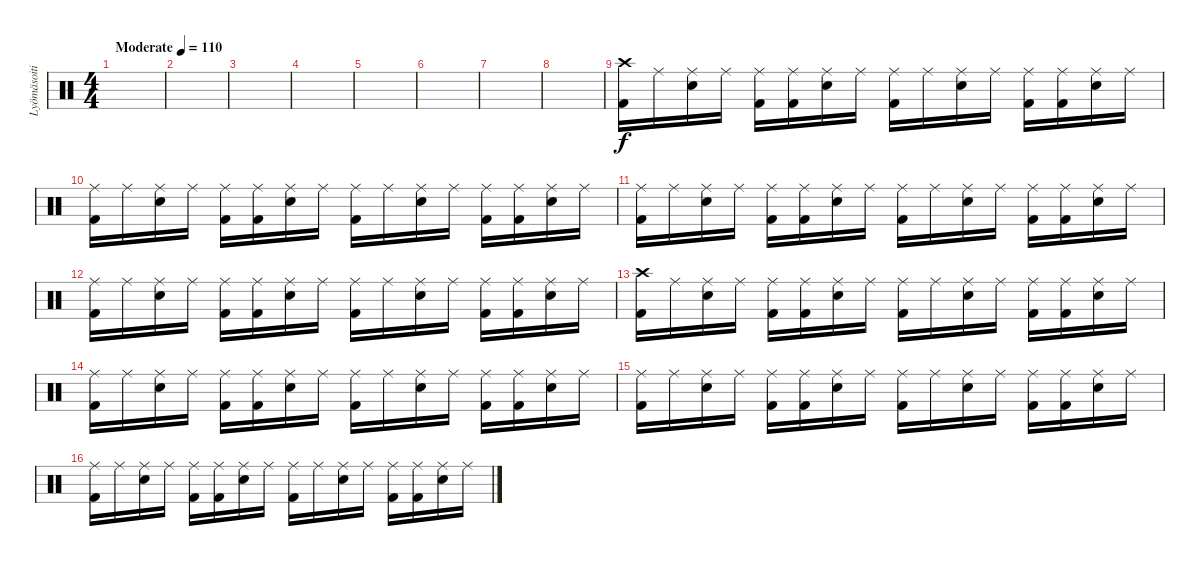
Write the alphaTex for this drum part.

\track ("Lyömäsoitin" "Lyömäsoiti") {instrument percussion}
\staff {score}
\articulation defaults
\ts (4 4)
\tempo (110 "Moderate")
\clef neutral
\ks c
|
|
|
|
|
|
|
|
("Crash high (hit)" "Kick (hit) 2").16 "Ride (middle)".16 ("Ride (middle)" "Snare (hit) 2").16 "Ride (middle)".16 ("Ride (middle)" "Kick (hit) 2").16 ("Ride (middle)" "Kick (hit) 2").16 ("Ride (middle)" "Snare (hit) 2").16 "Ride (middle)".16 ("Ride (middle)" "Kick (hit) 2").16 "Ride (middle)".16 ("Ride (middle)" "Snare (hit) 2").16 "Ride (middle)".16 ("Ride (middle)" "Kick (hit) 2").16 ("Ride (middle)" "Kick (hit) 2").16 ("Ride (middle)" "Snare (hit) 2").16 "Ride (middle)".16 |
("Ride (middle)" "Kick (hit) 2").16 "Ride (middle)".16 ("Ride (middle)" "Snare (hit) 2").16 "Ride (middle)".16 ("Ride (middle)" "Kick (hit) 2").16 ("Ride (middle)" "Kick (hit) 2").16 ("Ride (middle)" "Snare (hit) 2").16 "Ride (middle)".16 ("Ride (middle)" "Kick (hit) 2").16 "Ride (middle)".16 ("Ride (middle)" "Snare (hit) 2").16 "Ride (middle)".16 ("Ride (middle)" "Kick (hit) 2").16 ("Ride (middle)" "Kick (hit) 2").16 ("Ride (middle)" "Snare (hit) 2").16 "Ride (middle)".16 |
("Ride (middle)" "Kick (hit) 2").16 "Ride (middle)".16 ("Ride (middle)" "Snare (hit) 2").16 "Ride (middle)".16 ("Ride (middle)" "Kick (hit) 2").16 ("Ride (middle)" "Kick (hit) 2").16 ("Ride (middle)" "Snare (hit) 2").16 "Ride (middle)".16 ("Ride (middle)" "Kick (hit) 2").16 "Ride (middle)".16 ("Ride (middle)" "Snare (hit) 2").16 "Ride (middle)".16 ("Ride (middle)" "Kick (hit) 2").16 ("Ride (middle)" "Kick (hit) 2").16 ("Ride (middle)" "Snare (hit) 2").16 "Ride (middle)".16 |
("Ride (middle)" "Kick (hit) 2").16 "Ride (middle)".16 ("Ride (middle)" "Snare (hit) 2").16 "Ride (middle)".16 ("Ride (middle)" "Kick (hit) 2").16 ("Ride (middle)" "Kick (hit) 2").16 ("Ride (middle)" "Snare (hit) 2").16 "Ride (middle)".16 ("Ride (middle)" "Kick (hit) 2").16 "Ride (middle)".16 ("Ride (middle)" "Snare (hit) 2").16 "Ride (middle)".16 ("Ride (middle)" "Kick (hit) 2").16 ("Ride (middle)" "Kick (hit) 2").16 ("Ride (middle)" "Snare (hit) 2").16 "Ride (middle)".16 |
("Crash high (hit)" "Kick (hit) 2").16 "Ride (middle)".16 ("Ride (middle)" "Snare (hit) 2").16 "Ride (middle)".16 ("Ride (middle)" "Kick (hit) 2").16 ("Ride (middle)" "Kick (hit) 2").16 ("Ride (middle)" "Snare (hit) 2").16 "Ride (middle)".16 ("Ride (middle)" "Kick (hit) 2").16 "Ride (middle)".16 ("Ride (middle)" "Snare (hit) 2").16 "Ride (middle)".16 ("Ride (middle)" "Kick (hit) 2").16 ("Ride (middle)" "Kick (hit) 2").16 ("Ride (middle)" "Snare (hit) 2").16 "Ride (middle)".16 |
("Ride (middle)" "Kick (hit) 2").16 "Ride (middle)".16 ("Ride (middle)" "Snare (hit) 2").16 "Ride (middle)".16 ("Ride (middle)" "Kick (hit) 2").16 ("Ride (middle)" "Kick (hit) 2").16 ("Ride (middle)" "Snare (hit) 2").16 "Ride (middle)".16 ("Ride (middle)" "Kick (hit) 2").16 "Ride (middle)".16 ("Ride (middle)" "Snare (hit) 2").16 "Ride (middle)".16 ("Ride (middle)" "Kick (hit) 2").16 ("Ride (middle)" "Kick (hit) 2").16 ("Ride (middle)" "Snare (hit) 2").16 "Ride (middle)".16 |
("Ride (middle)" "Kick (hit) 2").16 "Ride (middle)".16 ("Ride (middle)" "Snare (hit) 2").16 "Ride (middle)".16 ("Ride (middle)" "Kick (hit) 2").16 ("Ride (middle)" "Kick (hit) 2").16 ("Ride (middle)" "Snare (hit) 2").16 "Ride (middle)".16 ("Ride (middle)" "Kick (hit) 2").16 "Ride (middle)".16 ("Ride (middle)" "Snare (hit) 2").16 "Ride (middle)".16 ("Ride (middle)" "Kick (hit) 2").16 ("Ride (middle)" "Kick (hit) 2").16 ("Ride (middle)" "Snare (hit) 2").16 "Ride (middle)".16 |
("Ride (middle)" "Kick (hit) 2").16 "Ride (middle)".16 ("Ride (middle)" "Snare (hit) 2").16 "Ride (middle)".16 ("Ride (middle)" "Kick (hit) 2").16 ("Ride (middle)" "Kick (hit) 2").16 ("Ride (middle)" "Snare (hit) 2").16 "Ride (middle)".16 ("Ride (middle)" "Kick (hit) 2").16 "Ride (middle)".16 ("Ride (middle)" "Snare (hit) 2").16 "Ride (middle)".16 ("Ride (middle)" "Kick (hit) 2").16 ("Ride (middle)" "Kick (hit) 2").16 ("Ride (middle)" "Snare (hit) 2").16 "Ride (middle)".16
